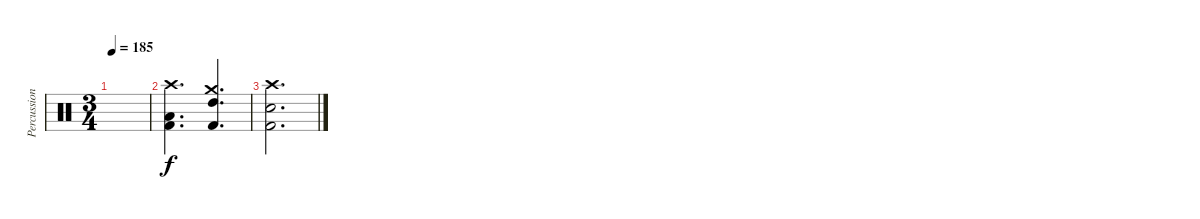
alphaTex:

\track ("Percussion" "Percussion") {instrument percussion}
\staff {score}
\articulation defaults
\ts (3 4)
\tempo 185
\clef neutral
\ks c
|
("Crash high (hit)" "Low Tom (hit)" "Kick (hit) 2").4{d} ("Crash medium (hit)" "High Tom (hit)" "Kick (hit) 2").4{d} |
("Crash high (hit)" "Snare (hit) 2" "Kick (hit) 2").2{d}
